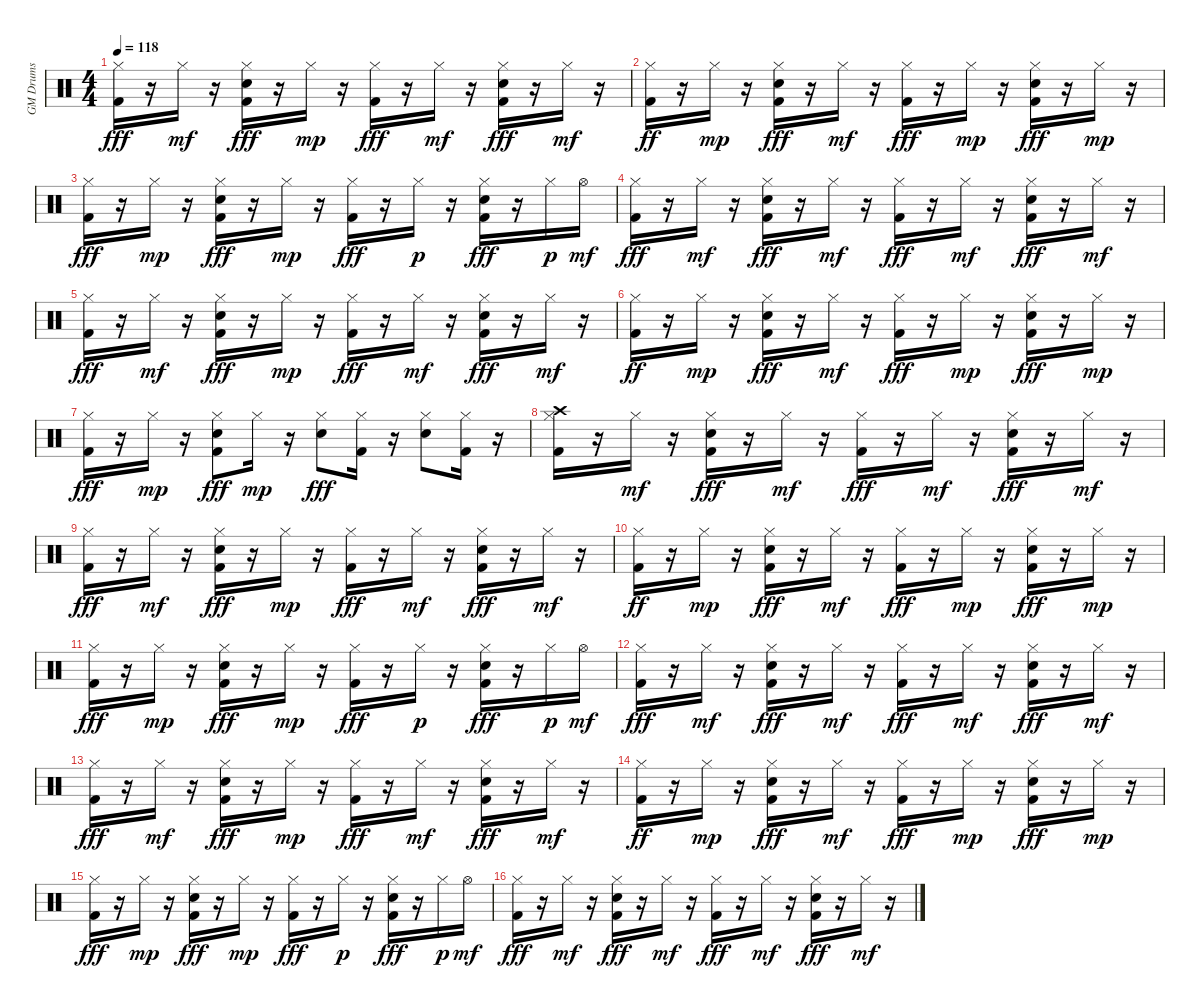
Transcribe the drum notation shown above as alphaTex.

\track ("GM Drums" "GM Drums") {instrument percussion}
\staff {score}
\articulation defaults
\ts (4 4)
\tempo 118
\clef neutral
\ks c
("Hi-Hat (closed)" "Kick (hit) 2").16{dy fff} r.16 "Hi-Hat (closed)".16{dy mf} r.16 ("Hi-Hat (closed)" "Kick (hit) 2" "Electric Snare (hit)").16{dy fff} r.16 "Hi-Hat (closed)".16{dy mp} r.16 ("Hi-Hat (closed)" "Kick (hit) 2").16{dy fff} r.16 "Hi-Hat (closed)".16{dy mf} r.16 ("Hi-Hat (closed)" "Kick (hit) 2" "Electric Snare (hit)").16{dy fff} r.16 "Hi-Hat (closed)".16{dy mf} r.16 |
("Hi-Hat (closed)" "Kick (hit) 2").16{dy ff} r.16 "Hi-Hat (closed)".16{dy mp} r.16 ("Hi-Hat (closed)" "Kick (hit) 2" "Electric Snare (hit)").16{dy fff} r.16 "Hi-Hat (closed)".16{dy mf} r.16 ("Hi-Hat (closed)" "Kick (hit) 2").16{dy fff} r.16 "Hi-Hat (closed)".16{dy mp} r.16 ("Hi-Hat (closed)" "Kick (hit) 2" "Electric Snare (hit)").16{dy fff} r.16 "Hi-Hat (closed)".16{dy mp} r.16 |
("Hi-Hat (closed)" "Kick (hit) 2").16{dy fff} r.16 "Hi-Hat (closed)".16{dy mp} r.16 ("Hi-Hat (closed)" "Kick (hit) 2" "Electric Snare (hit)").16{dy fff} r.16 "Hi-Hat (closed)".16{dy mp} r.16 ("Hi-Hat (closed)" "Kick (hit) 2").16{dy fff} r.16 "Hi-Hat (closed)".16{dy p} r.16 ("Hi-Hat (closed)" "Kick (hit) 2" "Electric Snare (hit)").16{dy fff} r.16 "Hi-Hat (closed)".16{dy p} "Hi-Hat (open)".16{dy mf} |
("Kick (hit) 2" "Hi-Hat (closed)").16{dy fff} r.16 "Hi-Hat (closed)".16{dy mf} r.16 ("Hi-Hat (closed)" "Kick (hit) 2" "Electric Snare (hit)").16{dy fff} r.16 "Hi-Hat (closed)".16{dy mf} r.16 ("Hi-Hat (closed)" "Kick (hit) 2").16{dy fff} r.16 "Hi-Hat (closed)".16{dy mf} r.16 ("Hi-Hat (closed)" "Kick (hit) 2" "Electric Snare (hit)").16{dy fff} r.16 "Hi-Hat (closed)".16{dy mf} r.16 |
("Hi-Hat (closed)" "Kick (hit) 2").16{dy fff} r.16 "Hi-Hat (closed)".16{dy mf} r.16 ("Hi-Hat (closed)" "Kick (hit) 2" "Electric Snare (hit)").16{dy fff} r.16 "Hi-Hat (closed)".16{dy mp} r.16 ("Hi-Hat (closed)" "Kick (hit) 2").16{dy fff} r.16 "Hi-Hat (closed)".16{dy mf} r.16 ("Hi-Hat (closed)" "Kick (hit) 2" "Electric Snare (hit)").16{dy fff} r.16 "Hi-Hat (closed)".16{dy mf} r.16 |
("Hi-Hat (closed)" "Kick (hit) 2").16{dy ff} r.16 "Hi-Hat (closed)".16{dy mp} r.16 ("Hi-Hat (closed)" "Kick (hit) 2" "Electric Snare (hit)").16{dy fff} r.16 "Hi-Hat (closed)".16{dy mf} r.16 ("Hi-Hat (closed)" "Kick (hit) 2").16{dy fff} r.16 "Hi-Hat (closed)".16{dy mp} r.16 ("Hi-Hat (closed)" "Kick (hit) 2" "Electric Snare (hit)").16{dy fff} r.16 "Hi-Hat (closed)".16{dy mp} r.16 |
("Hi-Hat (closed)" "Kick (hit) 2").16{dy fff} r.16 "Hi-Hat (closed)".16{dy mp} r.16 ("Hi-Hat (closed)" "Kick (hit) 2" "Electric Snare (hit)").8{dy fff} "Hi-Hat (closed)".16{dy mp} r.16 ("Hi-Hat (closed)" "Electric Snare (hit)").8{dy fff} ("Hi-Hat (closed)" "Kick (hit) 2").16 r.16 ("Hi-Hat (closed)" "Electric Snare (hit)").8 ("Hi-Hat (closed)" "Kick (hit) 2").16 r.16 |
("Crash high (hit)" "Kick (hit) 2" "Hi-Hat (closed)").16 r.16 "Hi-Hat (closed)".16{dy mf} r.16 ("Hi-Hat (closed)" "Kick (hit) 2" "Electric Snare (hit)").16{dy fff} r.16 "Hi-Hat (closed)".16{dy mf} r.16 ("Hi-Hat (closed)" "Kick (hit) 2").16{dy fff} r.16 "Hi-Hat (closed)".16{dy mf} r.16 ("Hi-Hat (closed)" "Kick (hit) 2" "Electric Snare (hit)").16{dy fff} r.16 "Hi-Hat (closed)".16{dy mf} r.16 |
("Hi-Hat (closed)" "Kick (hit) 2").16{dy fff} r.16 "Hi-Hat (closed)".16{dy mf} r.16 ("Hi-Hat (closed)" "Kick (hit) 2" "Electric Snare (hit)").16{dy fff} r.16 "Hi-Hat (closed)".16{dy mp} r.16 ("Hi-Hat (closed)" "Kick (hit) 2").16{dy fff} r.16 "Hi-Hat (closed)".16{dy mf} r.16 ("Hi-Hat (closed)" "Kick (hit) 2" "Electric Snare (hit)").16{dy fff} r.16 "Hi-Hat (closed)".16{dy mf} r.16 |
("Hi-Hat (closed)" "Kick (hit) 2").16{dy ff} r.16 "Hi-Hat (closed)".16{dy mp} r.16 ("Hi-Hat (closed)" "Kick (hit) 2" "Electric Snare (hit)").16{dy fff} r.16 "Hi-Hat (closed)".16{dy mf} r.16 ("Hi-Hat (closed)" "Kick (hit) 2").16{dy fff} r.16 "Hi-Hat (closed)".16{dy mp} r.16 ("Hi-Hat (closed)" "Kick (hit) 2" "Electric Snare (hit)").16{dy fff} r.16 "Hi-Hat (closed)".16{dy mp} r.16 |
("Hi-Hat (closed)" "Kick (hit) 2").16{dy fff} r.16 "Hi-Hat (closed)".16{dy mp} r.16 ("Hi-Hat (closed)" "Kick (hit) 2" "Electric Snare (hit)").16{dy fff} r.16 "Hi-Hat (closed)".16{dy mp} r.16 ("Hi-Hat (closed)" "Kick (hit) 2").16{dy fff} r.16 "Hi-Hat (closed)".16{dy p} r.16 ("Hi-Hat (closed)" "Kick (hit) 2" "Electric Snare (hit)").16{dy fff} r.16 "Hi-Hat (closed)".16{dy p} "Hi-Hat (open)".16{dy mf} |
("Kick (hit) 2" "Hi-Hat (closed)").16{dy fff} r.16 "Hi-Hat (closed)".16{dy mf} r.16 ("Hi-Hat (closed)" "Kick (hit) 2" "Electric Snare (hit)").16{dy fff} r.16 "Hi-Hat (closed)".16{dy mf} r.16 ("Hi-Hat (closed)" "Kick (hit) 2").16{dy fff} r.16 "Hi-Hat (closed)".16{dy mf} r.16 ("Hi-Hat (closed)" "Kick (hit) 2" "Electric Snare (hit)").16{dy fff} r.16 "Hi-Hat (closed)".16{dy mf} r.16 |
("Hi-Hat (closed)" "Kick (hit) 2").16{dy fff} r.16 "Hi-Hat (closed)".16{dy mf} r.16 ("Hi-Hat (closed)" "Kick (hit) 2" "Electric Snare (hit)").16{dy fff} r.16 "Hi-Hat (closed)".16{dy mp} r.16 ("Hi-Hat (closed)" "Kick (hit) 2").16{dy fff} r.16 "Hi-Hat (closed)".16{dy mf} r.16 ("Hi-Hat (closed)" "Kick (hit) 2" "Electric Snare (hit)").16{dy fff} r.16 "Hi-Hat (closed)".16{dy mf} r.16 |
("Hi-Hat (closed)" "Kick (hit) 2").16{dy ff} r.16 "Hi-Hat (closed)".16{dy mp} r.16 ("Hi-Hat (closed)" "Kick (hit) 2" "Electric Snare (hit)").16{dy fff} r.16 "Hi-Hat (closed)".16{dy mf} r.16 ("Hi-Hat (closed)" "Kick (hit) 2").16{dy fff} r.16 "Hi-Hat (closed)".16{dy mp} r.16 ("Hi-Hat (closed)" "Kick (hit) 2" "Electric Snare (hit)").16{dy fff} r.16 "Hi-Hat (closed)".16{dy mp} r.16 |
("Hi-Hat (closed)" "Kick (hit) 2").16{dy fff} r.16 "Hi-Hat (closed)".16{dy mp} r.16 ("Hi-Hat (closed)" "Kick (hit) 2" "Electric Snare (hit)").16{dy fff} r.16 "Hi-Hat (closed)".16{dy mp} r.16 ("Hi-Hat (closed)" "Kick (hit) 2").16{dy fff} r.16 "Hi-Hat (closed)".16{dy p} r.16 ("Hi-Hat (closed)" "Kick (hit) 2" "Electric Snare (hit)").16{dy fff} r.16 "Hi-Hat (closed)".16{dy p} "Hi-Hat (open)".16{dy mf} |
("Kick (hit) 2" "Hi-Hat (closed)").16{dy fff} r.16 "Hi-Hat (closed)".16{dy mf} r.16 ("Hi-Hat (closed)" "Kick (hit) 2" "Electric Snare (hit)").16{dy fff} r.16 "Hi-Hat (closed)".16{dy mf} r.16 ("Hi-Hat (closed)" "Kick (hit) 2").16{dy fff} r.16 "Hi-Hat (closed)".16{dy mf} r.16 ("Hi-Hat (closed)" "Kick (hit) 2" "Electric Snare (hit)").16{dy fff} r.16 "Hi-Hat (closed)".16{dy mf} r.16
